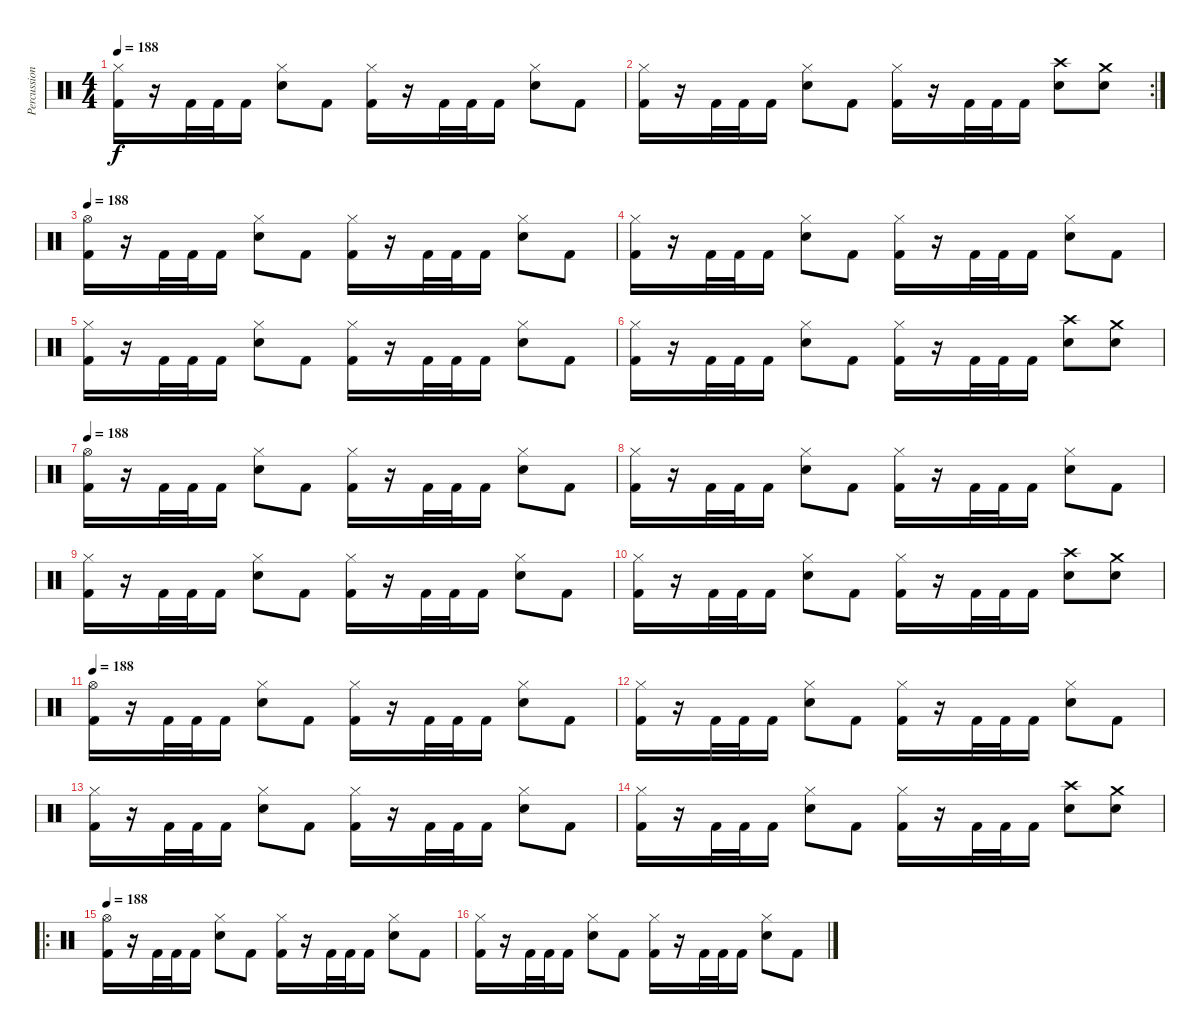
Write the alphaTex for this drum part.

\track ("Percussion" "Percussion") {instrument percussion}
\staff {score}
\articulation defaults
\ts (4 4)
\tempo 188
\clef neutral
\ks c
("Hi-Hat (closed)" "Kick (hit) 2").16{dy f} r.16 "Kick (hit) 2".32 "Kick (hit) 2".32 "Kick (hit) 2".16 ("Hi-Hat (closed)" "Electric Snare (hit)").8 "Kick (hit) 2".8 ("Hi-Hat (closed)" "Kick (hit) 2").16 r.16 "Kick (hit) 2".32 "Kick (hit) 2".32 "Kick (hit) 2".16 ("Hi-Hat (closed)" "Electric Snare (hit)").8 "Kick (hit) 2".8 |
\rc 2
("Hi-Hat (closed)" "Kick (hit) 2").16 r.16 "Kick (hit) 2".32 "Kick (hit) 2".32 "Kick (hit) 2".16 ("Hi-Hat (closed)" "Electric Snare (hit)").8 "Kick (hit) 2".8 ("Hi-Hat (closed)" "Kick (hit) 2").16 r.16 "Kick (hit) 2".32 "Kick (hit) 2".32 "Kick (hit) 2".16 ("Crash high (hit)" "Electric Snare (hit)").8 ("Crash medium (hit)" "Electric Snare (hit)").8 |
\tempo 188
("Hi-Hat (open)" "Kick (hit) 2").16 r.16 "Kick (hit) 2".32 "Kick (hit) 2".32 "Kick (hit) 2".16 ("Hi-Hat (closed)" "Electric Snare (hit)").8 "Kick (hit) 2".8 ("Hi-Hat (closed)" "Kick (hit) 2").16 r.16 "Kick (hit) 2".32 "Kick (hit) 2".32 "Kick (hit) 2".16 ("Hi-Hat (closed)" "Electric Snare (hit)").8 "Kick (hit) 2".8 |
("Hi-Hat (closed)" "Kick (hit) 2").16 r.16 "Kick (hit) 2".32 "Kick (hit) 2".32 "Kick (hit) 2".16 ("Hi-Hat (closed)" "Electric Snare (hit)").8 "Kick (hit) 2".8 ("Hi-Hat (closed)" "Kick (hit) 2").16 r.16 "Kick (hit) 2".32 "Kick (hit) 2".32 "Kick (hit) 2".16 ("Hi-Hat (closed)" "Electric Snare (hit)").8 "Kick (hit) 2".8 |
("Hi-Hat (closed)" "Kick (hit) 2").16 r.16 "Kick (hit) 2".32 "Kick (hit) 2".32 "Kick (hit) 2".16 ("Hi-Hat (closed)" "Electric Snare (hit)").8 "Kick (hit) 2".8 ("Hi-Hat (closed)" "Kick (hit) 2").16 r.16 "Kick (hit) 2".32 "Kick (hit) 2".32 "Kick (hit) 2".16 ("Hi-Hat (closed)" "Electric Snare (hit)").8 "Kick (hit) 2".8 |
("Hi-Hat (closed)" "Kick (hit) 2").16 r.16 "Kick (hit) 2".32 "Kick (hit) 2".32 "Kick (hit) 2".16 ("Hi-Hat (closed)" "Electric Snare (hit)").8 "Kick (hit) 2".8 ("Hi-Hat (closed)" "Kick (hit) 2").16 r.16 "Kick (hit) 2".32 "Kick (hit) 2".32 "Kick (hit) 2".16 ("Crash high (hit)" "Electric Snare (hit)").8 ("Crash medium (hit)" "Electric Snare (hit)").8 |
\tempo 188
("Hi-Hat (open)" "Kick (hit) 2").16 r.16 "Kick (hit) 2".32 "Kick (hit) 2".32 "Kick (hit) 2".16 ("Hi-Hat (closed)" "Electric Snare (hit)").8 "Kick (hit) 2".8 ("Hi-Hat (closed)" "Kick (hit) 2").16 r.16 "Kick (hit) 2".32 "Kick (hit) 2".32 "Kick (hit) 2".16 ("Hi-Hat (closed)" "Electric Snare (hit)").8 "Kick (hit) 2".8 |
("Hi-Hat (closed)" "Kick (hit) 2").16 r.16 "Kick (hit) 2".32 "Kick (hit) 2".32 "Kick (hit) 2".16 ("Hi-Hat (closed)" "Electric Snare (hit)").8 "Kick (hit) 2".8 ("Hi-Hat (closed)" "Kick (hit) 2").16 r.16 "Kick (hit) 2".32 "Kick (hit) 2".32 "Kick (hit) 2".16 ("Hi-Hat (closed)" "Electric Snare (hit)").8 "Kick (hit) 2".8 |
("Hi-Hat (closed)" "Kick (hit) 2").16 r.16 "Kick (hit) 2".32 "Kick (hit) 2".32 "Kick (hit) 2".16 ("Hi-Hat (closed)" "Electric Snare (hit)").8 "Kick (hit) 2".8 ("Hi-Hat (closed)" "Kick (hit) 2").16 r.16 "Kick (hit) 2".32 "Kick (hit) 2".32 "Kick (hit) 2".16 ("Hi-Hat (closed)" "Electric Snare (hit)").8 "Kick (hit) 2".8 |
("Hi-Hat (closed)" "Kick (hit) 2").16 r.16 "Kick (hit) 2".32 "Kick (hit) 2".32 "Kick (hit) 2".16 ("Hi-Hat (closed)" "Electric Snare (hit)").8 "Kick (hit) 2".8 ("Hi-Hat (closed)" "Kick (hit) 2").16 r.16 "Kick (hit) 2".32 "Kick (hit) 2".32 "Kick (hit) 2".16 ("Crash high (hit)" "Electric Snare (hit)").8 ("Crash medium (hit)" "Electric Snare (hit)").8 |
\tempo 188
("Hi-Hat (open)" "Kick (hit) 2").16 r.16 "Kick (hit) 2".32 "Kick (hit) 2".32 "Kick (hit) 2".16 ("Hi-Hat (closed)" "Electric Snare (hit)").8 "Kick (hit) 2".8 ("Hi-Hat (closed)" "Kick (hit) 2").16 r.16 "Kick (hit) 2".32 "Kick (hit) 2".32 "Kick (hit) 2".16 ("Hi-Hat (closed)" "Electric Snare (hit)").8 "Kick (hit) 2".8 |
("Hi-Hat (closed)" "Kick (hit) 2").16 r.16 "Kick (hit) 2".32 "Kick (hit) 2".32 "Kick (hit) 2".16 ("Hi-Hat (closed)" "Electric Snare (hit)").8 "Kick (hit) 2".8 ("Hi-Hat (closed)" "Kick (hit) 2").16 r.16 "Kick (hit) 2".32 "Kick (hit) 2".32 "Kick (hit) 2".16 ("Hi-Hat (closed)" "Electric Snare (hit)").8 "Kick (hit) 2".8 |
("Hi-Hat (closed)" "Kick (hit) 2").16 r.16 "Kick (hit) 2".32 "Kick (hit) 2".32 "Kick (hit) 2".16 ("Hi-Hat (closed)" "Electric Snare (hit)").8 "Kick (hit) 2".8 ("Hi-Hat (closed)" "Kick (hit) 2").16 r.16 "Kick (hit) 2".32 "Kick (hit) 2".32 "Kick (hit) 2".16 ("Hi-Hat (closed)" "Electric Snare (hit)").8 "Kick (hit) 2".8 |
("Hi-Hat (closed)" "Kick (hit) 2").16 r.16 "Kick (hit) 2".32 "Kick (hit) 2".32 "Kick (hit) 2".16 ("Hi-Hat (closed)" "Electric Snare (hit)").8 "Kick (hit) 2".8 ("Hi-Hat (closed)" "Kick (hit) 2").16 r.16 "Kick (hit) 2".32 "Kick (hit) 2".32 "Kick (hit) 2".16 ("Crash high (hit)" "Electric Snare (hit)").8 ("Crash medium (hit)" "Electric Snare (hit)").8 |
\ro
\tempo 188
("Hi-Hat (open)" "Kick (hit) 2").16 r.16 "Kick (hit) 2".32 "Kick (hit) 2".32 "Kick (hit) 2".16 ("Hi-Hat (closed)" "Electric Snare (hit)").8 "Kick (hit) 2".8 ("Hi-Hat (closed)" "Kick (hit) 2").16 r.16 "Kick (hit) 2".32 "Kick (hit) 2".32 "Kick (hit) 2".16 ("Hi-Hat (closed)" "Electric Snare (hit)").8 "Kick (hit) 2".8 |
("Hi-Hat (closed)" "Kick (hit) 2").16 r.16 "Kick (hit) 2".32 "Kick (hit) 2".32 "Kick (hit) 2".16 ("Hi-Hat (closed)" "Electric Snare (hit)").8 "Kick (hit) 2".8 ("Hi-Hat (closed)" "Kick (hit) 2").16 r.16 "Kick (hit) 2".32 "Kick (hit) 2".32 "Kick (hit) 2".16 ("Hi-Hat (closed)" "Electric Snare (hit)").8 "Kick (hit) 2".8
